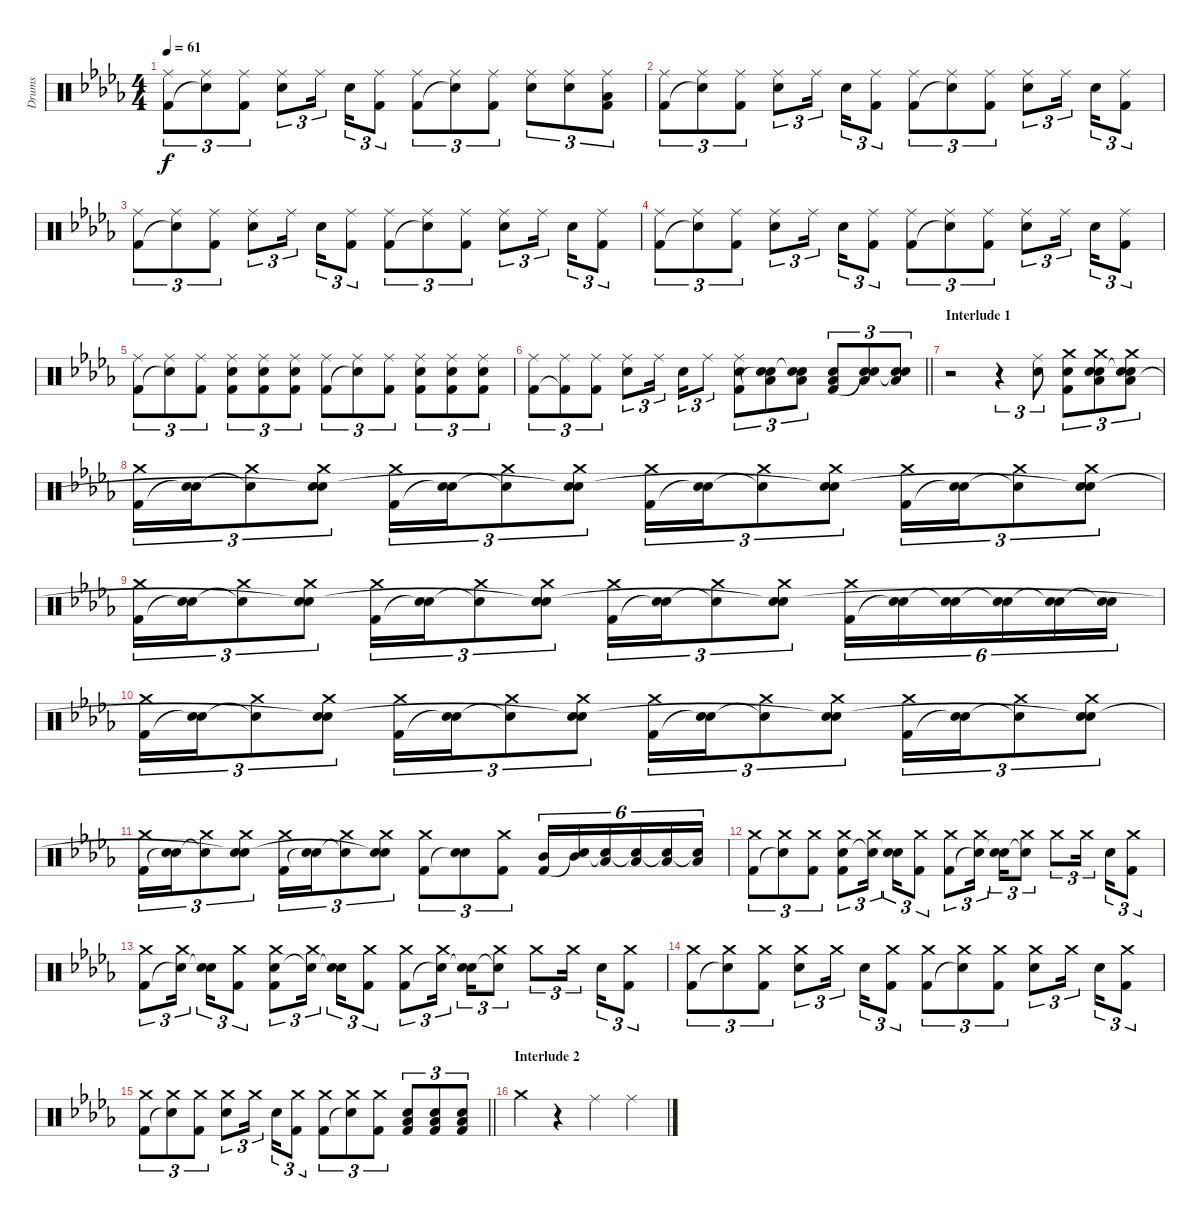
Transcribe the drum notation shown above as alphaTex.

\track ("Drums" "Drums") {instrument percussion}
\staff {score}
\articulation defaults
\ts (4 4)
\tempo 61
\clef neutral
\ks bbminor
("Ride (middle)" "Kick (hit) 2").8{tu (3 2) dy f} ("Ride (middle)" "Snare (hit)"{t}).8{tu (3 2)} ("Ride (middle)" "Kick (hit) 2").8{tu (3 2)} ("Ride (middle)" "Electric Snare (hit)").8{tu (3 2)} "Ride (middle)".16{tu (3 2)} "Electric Snare (hit)".16{tu (3 2)} ("Ride (middle)" "Kick (hit) 2").8{tu (3 2)} ("Ride (middle)" "Kick (hit) 2").8{tu (3 2)} ("Ride (middle)" "Snare (hit)"{t}).8{tu (3 2)} ("Ride (middle)" "Kick (hit) 2").8{tu (3 2)} ("Ride (middle)" "Electric Snare (hit)").8{tu (3 2)} ("Ride (middle)" "Electric Snare (hit)").8{tu (3 2)} ("Ride (middle)" "Low Floor Tom (hit)" "Kick (hit) 2").8{tu (3 2)} |
("Ride (middle)" "Kick (hit) 2").8{tu (3 2)} ("Ride (middle)" "Snare (hit)"{t}).8{tu (3 2)} ("Ride (middle)" "Kick (hit) 2").8{tu (3 2)} ("Ride (middle)" "Electric Snare (hit)").8{tu (3 2)} "Ride (middle)".16{tu (3 2)} "Electric Snare (hit)".16{tu (3 2)} ("Ride (middle)" "Kick (hit) 2").8{tu (3 2)} ("Ride (middle)" "Kick (hit) 2").8{tu (3 2)} ("Ride (middle)" "Snare (hit)"{t}).8{tu (3 2)} ("Ride (middle)" "Kick (hit) 2").8{tu (3 2)} ("Ride (middle)" "Electric Snare (hit)").8{tu (3 2)} "Ride (middle)".16{tu (3 2)} "Electric Snare (hit)".16{tu (3 2)} ("Ride (middle)" "Kick (hit) 2").8{tu (3 2)} |
("Ride (middle)" "Kick (hit) 2").8{tu (3 2)} ("Ride (middle)" "Snare (hit)"{t}).8{tu (3 2)} ("Ride (middle)" "Kick (hit) 2").8{tu (3 2)} ("Ride (middle)" "Electric Snare (hit)").8{tu (3 2)} "Ride (middle)".16{tu (3 2)} "Electric Snare (hit)".16{tu (3 2)} ("Ride (middle)" "Kick (hit) 2").8{tu (3 2)} ("Ride (middle)" "Kick (hit) 2").8{tu (3 2)} ("Ride (middle)" "Snare (hit)"{t}).8{tu (3 2)} ("Ride (middle)" "Kick (hit) 2").8{tu (3 2)} ("Ride (middle)" "Electric Snare (hit)").8{tu (3 2)} "Ride (middle)".16{tu (3 2)} "Electric Snare (hit)".16{tu (3 2)} ("Ride (middle)" "Kick (hit) 2").8{tu (3 2)} |
("Ride (middle)" "Kick (hit) 2").8{tu (3 2)} ("Ride (middle)" "Snare (hit)"{t}).8{tu (3 2)} ("Ride (middle)" "Kick (hit) 2").8{tu (3 2)} ("Ride (middle)" "Electric Snare (hit)").8{tu (3 2)} "Ride (middle)".16{tu (3 2)} "Electric Snare (hit)".16{tu (3 2)} ("Ride (middle)" "Kick (hit) 2").8{tu (3 2)} ("Ride (middle)" "Kick (hit) 2").8{tu (3 2)} ("Ride (middle)" "Snare (hit)"{t}).8{tu (3 2)} ("Ride (middle)" "Kick (hit) 2").8{tu (3 2)} ("Ride (middle)" "Electric Snare (hit)").8{tu (3 2)} "Ride (middle)".16{tu (3 2)} "Electric Snare (hit)".16{tu (3 2)} ("Ride (middle)" "Kick (hit) 2").8{tu (3 2)} |
("Ride (middle)" "Kick (hit) 2").8{tu (3 2)} ("Ride (middle)" "Snare (hit)"{t}).8{tu (3 2)} ("Ride (middle)" "Kick (hit) 2").8{tu (3 2)} ("Ride (middle)" "Electric Snare (hit)" "Kick (hit) 2").8{tu (3 2)} ("Ride (middle)" "Electric Snare (hit)" "Kick (hit) 2").8{tu (3 2)} ("Ride (middle)" "Electric Snare (hit)" "Kick (hit) 2").8{tu (3 2)} ("Ride (middle)" "Kick (hit) 2").8{tu (3 2)} ("Ride (middle)" "Snare (hit)"{t}).8{tu (3 2)} ("Ride (middle)" "Kick (hit) 2").8{tu (3 2)} ("Ride (middle)" "Electric Snare (hit)" "Kick (hit) 2").8{tu (3 2)} ("Ride (middle)" "Electric Snare (hit)" "Kick (hit) 2").8{tu (3 2)} ("Ride (middle)" "Electric Snare (hit)" "Kick (hit) 2").8{tu (3 2)} |
\barLineRight lightlight
("Ride (middle)" "Kick (hit) 2").8{tu (3 2)} ("Ride (middle)" "Kick (hit) 2"{t}).8{tu (3 2)} ("Ride (middle)" "Kick (hit) 2").8{tu (3 2)} ("Ride (middle)" "Electric Snare (hit)").8{tu (3 2)} "Ride (middle)".16{tu (3 2)} "Electric Snare (hit)".16{tu (3 2)} "Ride (middle)".8{tu (3 2)} ("Ride (middle)" "Electric Snare (hit)" "Kick (hit) 2").8{tu (3 2)} ("Electric Snare (hit)" "Low Floor Tom (hit)" "Snare (hit)"{t}).8{tu (3 2)} ("Electric Snare (hit)" "Low Floor Tom (hit)" "Snare (hit)"{t}).8{tu (3 2)} ("Electric Snare (hit)" "Low Floor Tom (hit)" "Kick (hit) 2").8{tu (3 2)} ("Electric Snare (hit)" "Low Floor Tom (hit)" "Snare (hit)"{t}).8{tu (3 2)} ("Electric Snare (hit)" "Low Floor Tom (hit)" "Snare (hit)"{t}).8{tu (3 2)} |
\section ("" "Interlude 1")
r.2 r.4{tu (3 2)} ("Ride (middle)" "Electric Snare (hit)").8{tu (3 2)} ("Crash medium (hit)" "Electric Snare (hit)" "Kick (hit) 2").8{tu (3 2)} ("Crash medium (hit)" "Electric Snare (hit)" "Low Floor Tom (hit)" "Snare (hit)").8{tu (3 2)} ("Crash medium (hit)" "Electric Snare (hit)" "Low Floor Tom (hit)" "Snare (hit)"{t}).8{tu (3 2)} |
("Crash medium (hit)" "Kick (hit) 2").16{tu (3 2)} ("Electric Snare (hit)" "Snare (hit)"{t}).16{tu (3 2)} ("Crash medium (hit)" "Snare (hit)"{t}).8{tu (3 2)} ("Crash medium (hit)" "Electric Snare (hit)" "Snare (hit)"{t}).8{tu (3 2)} ("Crash medium (hit)" "Kick (hit) 2").16{tu (3 2)} ("Electric Snare (hit)" "Snare (hit)"{t}).16{tu (3 2)} ("Crash medium (hit)" "Snare (hit)"{t}).8{tu (3 2)} ("Crash medium (hit)" "Electric Snare (hit)" "Snare (hit)"{t}).8{tu (3 2)} ("Crash medium (hit)" "Kick (hit) 2").16{tu (3 2)} ("Electric Snare (hit)" "Snare (hit)"{t}).16{tu (3 2)} ("Crash medium (hit)" "Snare (hit)"{t}).8{tu (3 2)} ("Crash medium (hit)" "Electric Snare (hit)" "Snare (hit)"{t}).8{tu (3 2)} ("Crash medium (hit)" "Kick (hit) 2").16{tu (3 2)} ("Electric Snare (hit)" "Snare (hit)"{t}).16{tu (3 2)} ("Crash medium (hit)" "Snare (hit)"{t}).8{tu (3 2)} ("Crash medium (hit)" "Electric Snare (hit)" "Snare (hit)"{t}).8{tu (3 2)} |
("Crash medium (hit)" "Kick (hit) 2").16{tu (3 2)} ("Electric Snare (hit)" "Snare (hit)"{t}).16{tu (3 2)} ("Crash medium (hit)" "Snare (hit)"{t}).8{tu (3 2)} ("Crash medium (hit)" "Electric Snare (hit)" "Snare (hit)"{t}).8{tu (3 2)} ("Crash medium (hit)" "Kick (hit) 2").16{tu (3 2)} ("Electric Snare (hit)" "Snare (hit)"{t}).16{tu (3 2)} ("Crash medium (hit)" "Snare (hit)"{t}).8{tu (3 2)} ("Crash medium (hit)" "Electric Snare (hit)" "Snare (hit)"{t}).8{tu (3 2)} ("Crash medium (hit)" "Kick (hit) 2").16{tu (3 2)} ("Electric Snare (hit)" "Snare (hit)"{t}).16{tu (3 2)} ("Crash medium (hit)" "Snare (hit)"{t}).8{tu (3 2)} ("Crash medium (hit)" "Electric Snare (hit)" "Snare (hit)"{t}).8{tu (3 2)} ("Crash medium (hit)" "Kick (hit) 2").16{tu (6 4)} ("Electric Snare (hit)" "Snare (hit)"{t}).16{tu (6 4)} ("Electric Snare (hit)" "Snare (hit)"{t}).16{tu (6 4)} ("Electric Snare (hit)" "Snare (hit)"{t}).16{tu (6 4)} ("Electric Snare (hit)" "Snare (hit)"{t}).16{tu (6 4)} ("Electric Snare (hit)" "Snare (hit)"{t}).16{tu (6 4)} |
("Crash medium (hit)" "Kick (hit) 2").16{tu (3 2)} ("Electric Snare (hit)" "Snare (hit)"{t}).16{tu (3 2)} ("Crash medium (hit)" "Snare (hit)"{t}).8{tu (3 2)} ("Crash medium (hit)" "Electric Snare (hit)" "Snare (hit)"{t}).8{tu (3 2)} ("Crash medium (hit)" "Kick (hit) 2").16{tu (3 2)} ("Electric Snare (hit)" "Snare (hit)"{t}).16{tu (3 2)} ("Crash medium (hit)" "Snare (hit)"{t}).8{tu (3 2)} ("Crash medium (hit)" "Electric Snare (hit)" "Snare (hit)"{t}).8{tu (3 2)} ("Crash medium (hit)" "Kick (hit) 2").16{tu (3 2)} ("Electric Snare (hit)" "Snare (hit)"{t}).16{tu (3 2)} ("Crash medium (hit)" "Snare (hit)"{t}).8{tu (3 2)} ("Crash medium (hit)" "Electric Snare (hit)" "Snare (hit)"{t}).8{tu (3 2)} ("Crash medium (hit)" "Kick (hit) 2").16{tu (3 2)} ("Electric Snare (hit)" "Snare (hit)"{t}).16{tu (3 2)} ("Crash medium (hit)" "Snare (hit)"{t}).8{tu (3 2)} ("Crash medium (hit)" "Electric Snare (hit)" "Snare (hit)"{t}).8{tu (3 2)} |
("Crash medium (hit)" "Kick (hit) 2").16{tu (3 2)} ("Electric Snare (hit)" "Snare (hit)"{t}).16{tu (3 2)} ("Crash medium (hit)" "Snare (hit)"{t}).8{tu (3 2)} ("Crash medium (hit)" "Electric Snare (hit)" "Snare (hit)"{t}).8{tu (3 2)} ("Crash medium (hit)" "Kick (hit) 2").16{tu (3 2)} ("Electric Snare (hit)" "Snare (hit)"{t}).16{tu (3 2)} ("Crash medium (hit)" "Snare (hit)"{t}).8{tu (3 2)} ("Crash medium (hit)" "Electric Snare (hit)" "Snare (hit)"{t}).8{tu (3 2)} ("Crash medium (hit)" "Kick (hit) 2").8{tu (3 2)} ("Electric Snare (hit)" "Snare (hit)"{t}).8{tu (3 2)} ("Crash medium (hit)" "Kick (hit) 2").8{tu (3 2)} ("Mid Tom (hit)" "Kick (hit) 2").16{tu (6 4)} ("Mid Tom (hit)" "Snare (hit)"{t}).16{tu (6 4)} ("Low Floor Tom (hit)" "Snare (hit)"{t}).16{tu (6 4)} ("Low Floor Tom (hit)" "Snare (hit)"{t}).16{tu (6 4)} ("Low Floor Tom (hit)" "Snare (hit)"{t}).16{tu (6 4)} ("Low Floor Tom (hit)" "Snare (hit)"{t}).16{tu (6 4)} |
("Crash medium (hit)" "Kick (hit) 2").8{tu (3 2)} ("Crash medium (hit)" "Snare (hit)"{t}).8{tu (3 2)} ("Crash medium (hit)" "Kick (hit) 2").8{tu (3 2)} ("Crash medium (hit)" "Electric Snare (hit)" "Kick (hit) 2").8{tu (3 2)} ("Crash medium (hit)" "Snare (hit)"{t}).16{tu (3 2)} ("Electric Snare (hit)" "Snare (hit)"{t}).16{tu (3 2)} ("Crash medium (hit)" "Kick (hit) 2").8{tu (3 2)} ("Crash medium (hit)" "Kick (hit) 2").8{tu (3 2)} ("Crash medium (hit)" "Snare (hit)"{t}).16{tu (3 2)} ("Electric Snare (hit)" "Snare (hit)"{t}).16{tu (3 2)} ("Crash medium (hit)" "Snare (hit)"{t}).8{tu (3 2)} "Crash medium (hit)".8{tu (3 2)} "Crash medium (hit)".16{tu (3 2)} "Electric Snare (hit)".16{tu (3 2)} ("Crash medium (hit)" "Kick (hit) 2").8{tu (3 2)} |
("Crash medium (hit)" "Kick (hit) 2").8{tu (3 2)} ("Crash medium (hit)" "Snare (hit)"{t}).16{tu (3 2)} ("Electric Snare (hit)" "Snare (hit)"{t}).16{tu (3 2)} ("Crash medium (hit)" "Kick (hit) 2").8{tu (3 2)} ("Crash medium (hit)" "Electric Snare (hit)" "Kick (hit) 2").8{tu (3 2)} ("Crash medium (hit)" "Snare (hit)"{t}).16{tu (3 2)} ("Electric Snare (hit)" "Snare (hit)"{t}).16{tu (3 2)} ("Crash medium (hit)" "Kick (hit) 2").8{tu (3 2)} ("Crash medium (hit)" "Kick (hit) 2").8{tu (3 2)} ("Crash medium (hit)" "Snare (hit)"{t}).16{tu (3 2)} ("Electric Snare (hit)" "Snare (hit)"{t}).16{tu (3 2)} ("Crash medium (hit)" "Snare (hit)"{t}).8{tu (3 2)} "Crash medium (hit)".8{tu (3 2)} "Crash medium (hit)".16{tu (3 2)} "Electric Snare (hit)".16{tu (3 2)} ("Crash medium (hit)" "Kick (hit) 2").8{tu (3 2)} |
("Crash medium (hit)" "Kick (hit) 2").8{tu (3 2)} ("Crash medium (hit)" "Snare (hit)"{t}).8{tu (3 2)} ("Crash medium (hit)" "Kick (hit) 2").8{tu (3 2)} ("Crash medium (hit)" "Electric Snare (hit)").8{tu (3 2)} "Crash medium (hit)".16{tu (3 2)} "Electric Snare (hit)".16{tu (3 2)} ("Crash medium (hit)" "Kick (hit) 2").8{tu (3 2)} ("Crash medium (hit)" "Kick (hit) 2").8{tu (3 2)} ("Crash medium (hit)" "Snare (hit)"{t}).8{tu (3 2)} ("Crash medium (hit)" "Kick (hit) 2").8{tu (3 2)} ("Crash medium (hit)" "Electric Snare (hit)").8{tu (3 2)} "Crash medium (hit)".16{tu (3 2)} "Electric Snare (hit)".16{tu (3 2)} ("Crash medium (hit)" "Kick (hit) 2").8{tu (3 2)} |
\barLineRight lightlight
("Crash medium (hit)" "Kick (hit) 2").8{tu (3 2)} ("Crash medium (hit)" "Snare (hit)"{t}).8{tu (3 2)} ("Crash medium (hit)" "Kick (hit) 2").8{tu (3 2)} ("Crash medium (hit)" "Electric Snare (hit)").8{tu (3 2)} "Crash medium (hit)".16{tu (3 2)} "Electric Snare (hit)".16{tu (3 2)} ("Crash medium (hit)" "Kick (hit) 2").8{tu (3 2)} ("Crash medium (hit)" "Kick (hit) 2").8{tu (3 2)} ("Crash medium (hit)" "Snare (hit)"{t}).8{tu (3 2)} ("Crash medium (hit)" "Kick (hit) 2").8{tu (3 2)} ("Electric Snare (hit)" "Low Floor Tom (hit)" "Kick (hit) 2").8{tu (3 2)} ("Electric Snare (hit)" "Low Floor Tom (hit)" "Kick (hit) 2").8{tu (3 2)} ("Electric Snare (hit)" "Low Floor Tom (hit)" "Kick (hit) 2").8{tu (3 2)} |
\section ("" "Interlude 2")
"Crash medium (hit)".4 r.4 "Ride (middle)".4 "Ride (middle)".4
